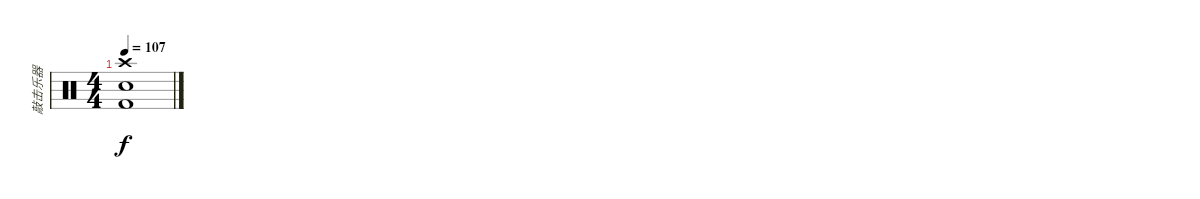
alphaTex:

\track ("敲击乐器" "敲击乐器") {instrument percussion}
\staff {score}
\articulation defaults
\ts (4 4)
\tempo 107
\clef neutral
\ks c
("Crash high (hit)" "Snare (hit) 2" "Kick (hit) 2").1{dy f}
